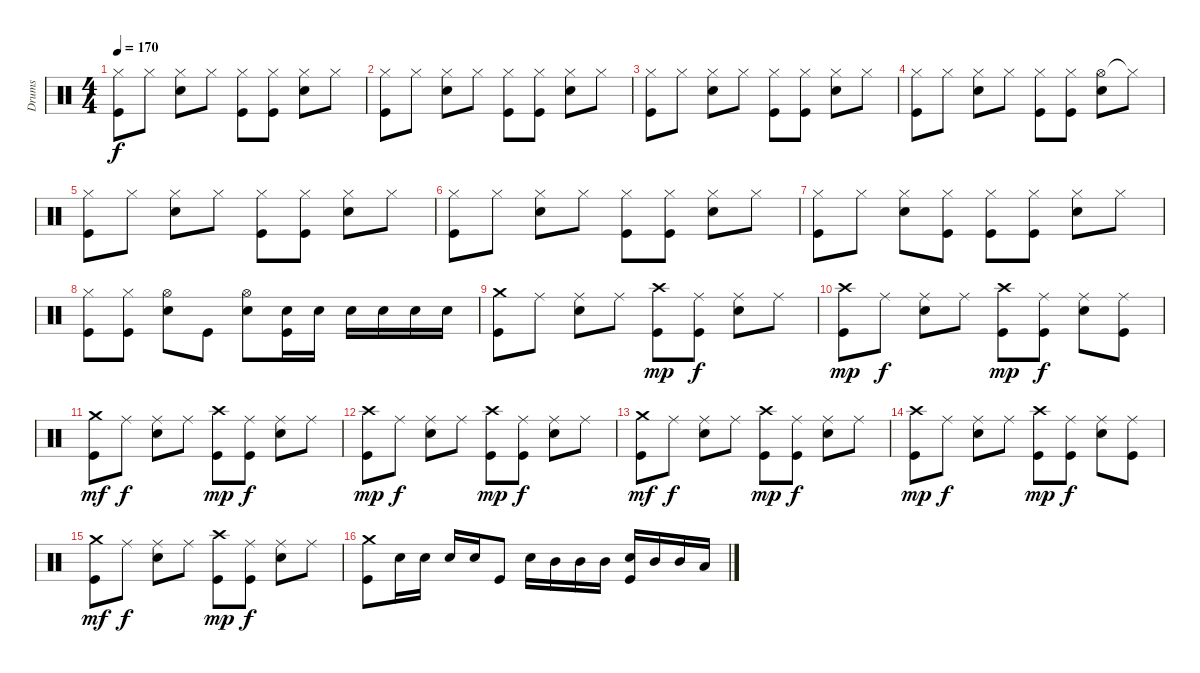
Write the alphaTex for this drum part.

\track ("Drums" "Drums") {instrument percussion}
\staff {score}
\articulation defaults
\ts (4 4)
\tempo 170
\clef neutral
\ks c
("Hi-Hat (closed)" "Kick (hit)").8{dy f} "Hi-Hat (closed)".8 ("Hi-Hat (closed)" "Snare (hit) 2").8 "Hi-Hat (closed)".8 ("Hi-Hat (closed)" "Kick (hit)").8 ("Hi-Hat (closed)" "Kick (hit)").8 ("Hi-Hat (closed)" "Snare (hit) 2").8 "Hi-Hat (closed)".8 |
("Hi-Hat (closed)" "Kick (hit)").8 "Hi-Hat (closed)".8 ("Hi-Hat (closed)" "Snare (hit) 2").8 "Hi-Hat (closed)".8 ("Hi-Hat (closed)" "Kick (hit)").8 ("Hi-Hat (closed)" "Kick (hit)").8 ("Hi-Hat (closed)" "Snare (hit) 2").8 "Hi-Hat (closed)".8 |
("Hi-Hat (closed)" "Kick (hit)").8 "Hi-Hat (closed)".8 ("Hi-Hat (closed)" "Snare (hit) 2").8 "Hi-Hat (closed)".8 ("Hi-Hat (closed)" "Kick (hit)").8 ("Hi-Hat (closed)" "Kick (hit)").8 ("Hi-Hat (closed)" "Snare (hit) 2").8 "Hi-Hat (closed)".8 |
("Hi-Hat (closed)" "Kick (hit)").8 "Hi-Hat (closed)".8 ("Hi-Hat (closed)" "Snare (hit) 2").8 "Hi-Hat (closed)".8 ("Hi-Hat (closed)" "Kick (hit)").8 ("Hi-Hat (closed)" "Kick (hit)").8 ("Hi-Hat (open)" "Snare (hit) 2").8 "Hi-Hat (closed)"{t}.8 |
("Hi-Hat (closed)" "Kick (hit)").8 "Hi-Hat (closed)".8 ("Hi-Hat (closed)" "Snare (hit) 2").8 "Hi-Hat (closed)".8 ("Hi-Hat (closed)" "Kick (hit)").8 ("Hi-Hat (closed)" "Kick (hit)").8 ("Hi-Hat (closed)" "Snare (hit) 2").8 "Hi-Hat (closed)".8 |
("Hi-Hat (closed)" "Kick (hit)").8 "Hi-Hat (closed)".8 ("Hi-Hat (closed)" "Snare (hit) 2").8 "Hi-Hat (closed)".8 ("Hi-Hat (closed)" "Kick (hit)").8 ("Hi-Hat (closed)" "Kick (hit)").8 ("Hi-Hat (closed)" "Snare (hit) 2").8 "Hi-Hat (closed)".8 |
("Hi-Hat (closed)" "Kick (hit)").8 "Hi-Hat (closed)".8 ("Hi-Hat (closed)" "Snare (hit) 2").8 ("Hi-Hat (closed)" "Kick (hit)").8 ("Hi-Hat (closed)" "Kick (hit)").8 ("Hi-Hat (closed)" "Kick (hit)").8 ("Hi-Hat (closed)" "Snare (hit) 2").8 "Hi-Hat (closed)".8 |
("Hi-Hat (closed)" "Kick (hit)").8 ("Hi-Hat (closed)" "Kick (hit)").8 ("Hi-Hat (open)" "Snare (hit) 2").8 "Kick (hit)".8 ("Hi-Hat (open)" "Snare (hit) 2").8 ("Snare (hit) 2" "Kick (hit)").16 "Snare (hit) 2".16 "Snare (hit) 2".16 "Snare (hit) 2".16 "Snare (hit) 2".16 "Snare (hit) 2".16 |
("Crash medium (hit)" "Kick (hit)").8 "Ride (middle)".8 ("Ride (middle)" "Snare (hit) 2").8 "Ride (middle)".8 ("Crash high (hit)" "Kick (hit)").8{dy mp} ("Ride (middle)" "Kick (hit)").8{dy f} ("Ride (middle)" "Snare (hit) 2").8 "Ride (middle)".8 |
("Crash high (hit)" "Kick (hit)").8{dy mp} "Ride (middle)".8{dy f} ("Ride (middle)" "Snare (hit) 2").8 "Ride (middle)".8 ("Crash high (hit)" "Kick (hit)").8{dy mp} ("Ride (middle)" "Kick (hit)").8{dy f} ("Ride (middle)" "Snare (hit) 2").8 ("Ride (middle)" "Kick (hit)").8 |
("Crash medium (hit)" "Kick (hit)").8{dy mf} "Ride (middle)".8{dy f} ("Ride (middle)" "Snare (hit) 2").8 "Ride (middle)".8 ("Crash high (hit)" "Kick (hit)").8{dy mp} ("Ride (middle)" "Kick (hit)").8{dy f} ("Ride (middle)" "Snare (hit) 2").8 "Ride (middle)".8 |
("Crash high (hit)" "Kick (hit)").8{dy mp} "Ride (middle)".8{dy f} ("Ride (middle)" "Snare (hit) 2").8 "Ride (middle)".8 ("Crash high (hit)" "Kick (hit)").8{dy mp} ("Ride (middle)" "Kick (hit)").8{dy f} ("Ride (middle)" "Snare (hit) 2").8 "Ride (middle)".8 |
("Crash medium (hit)" "Kick (hit)").8{dy mf} "Ride (middle)".8{dy f} ("Ride (middle)" "Snare (hit) 2").8 "Ride (middle)".8 ("Crash high (hit)" "Kick (hit)").8{dy mp} ("Ride (middle)" "Kick (hit)").8{dy f} ("Ride (middle)" "Snare (hit) 2").8 "Ride (middle)".8 |
("Crash high (hit)" "Kick (hit)").8{dy mp} "Ride (middle)".8{dy f} ("Ride (middle)" "Snare (hit) 2").8 "Ride (middle)".8 ("Crash high (hit)" "Kick (hit)").8{dy mp} ("Ride (middle)" "Kick (hit)").8{dy f} ("Ride (middle)" "Snare (hit) 2").8 ("Ride (middle)" "Kick (hit)").8 |
("Crash medium (hit)" "Kick (hit)").8{dy mf} "Ride (middle)".8{dy f} ("Ride (middle)" "Snare (hit) 2").8 "Ride (middle)".8 ("Crash high (hit)" "Kick (hit)").8{dy mp} ("Ride (middle)" "Kick (hit)").8{dy f} ("Ride (middle)" "Snare (hit) 2").8 "Ride (middle)".8 |
("Crash medium (hit)" "Kick (hit)").8 "Snare (hit) 2".16 "Snare (hit) 2".16 "Snare (hit) 2".16 "Snare (hit) 2".16 "Kick (hit)".8 "Snare (hit) 2".16 "Mid Tom (hit)".16 "Mid Tom (hit)".16 "Mid Tom (hit)".16 ("Snare (hit) 2" "Kick (hit)").16 "Mid Tom (hit)".16 "Mid Tom (hit)".16 "Low Tom (hit)".16
